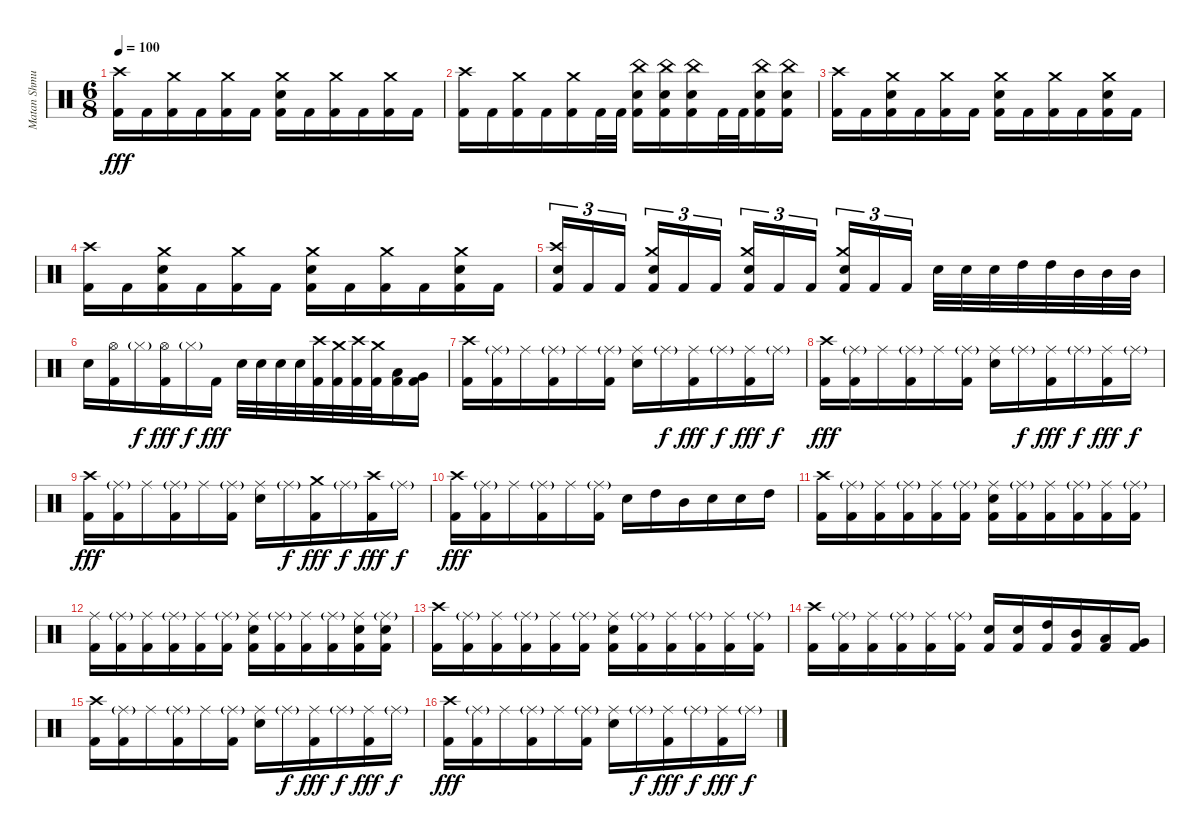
\track ("Matan Shmuely" "Matan Shmu") {instrument percussion}
\staff {score}
\articulation defaults
\ts (6 8)
\tempo 100
\clef neutral
\ks c
("Kick (hit) 2" "Crash high (hit)").16{dy fff} "Kick (hit) 2".16 ("Kick (hit) 2" "Crash medium (hit)").16 "Kick (hit) 2".16 ("Kick (hit) 2" "Crash medium (hit)").16 "Kick (hit) 2".16 ("Kick (hit) 2" "Electric Snare (hit)" "Crash medium (hit)").16 "Kick (hit) 2".16 ("Kick (hit) 2" "Crash medium (hit)").16 "Kick (hit) 2".16 ("Kick (hit) 2" "Crash medium (hit)").16 "Kick (hit) 2".16 |
("Kick (hit) 2" "Crash high (hit)").16 "Kick (hit) 2".16 ("Kick (hit) 2" "Crash medium (hit)").16 "Kick (hit) 2".16 ("Kick (hit) 2" "Crash medium (hit)").16 "Kick (hit) 2".32 "Kick (hit) 2".32 ("Kick (hit) 2" "Electric Snare (hit)" "China (hit)").16 ("Kick (hit) 2" "Electric Snare (hit)" "China (hit)").16 ("Kick (hit) 2" "Electric Snare (hit)" "China (hit)").16 "Kick (hit) 2".32 "Kick (hit) 2".32 ("Kick (hit) 2" "Electric Snare (hit)" "China (hit)").16 ("Kick (hit) 2" "Electric Snare (hit)" "China (hit)").16 |
("Kick (hit) 2" "Crash high (hit)").16 "Kick (hit) 2".16 ("Kick (hit) 2" "Electric Snare (hit)" "Crash medium (hit)").16 "Kick (hit) 2".16 ("Kick (hit) 2" "Crash medium (hit)").16 "Kick (hit) 2".16 ("Kick (hit) 2" "Electric Snare (hit)" "Crash medium (hit)").16 "Kick (hit) 2".16 ("Kick (hit) 2" "Crash medium (hit)").16 "Kick (hit) 2".16 ("Kick (hit) 2" "Electric Snare (hit)" "Crash medium (hit)").16 "Kick (hit) 2".16 |
("Kick (hit) 2" "Crash high (hit)").16 "Kick (hit) 2".16 ("Kick (hit) 2" "Electric Snare (hit)" "Crash medium (hit)").16 "Kick (hit) 2".16 ("Kick (hit) 2" "Crash medium (hit)").16 "Kick (hit) 2".16 ("Kick (hit) 2" "Electric Snare (hit)" "Crash medium (hit)").16 "Kick (hit) 2".16 ("Kick (hit) 2" "Crash medium (hit)").16 "Kick (hit) 2".16 ("Kick (hit) 2" "Electric Snare (hit)" "Crash medium (hit)").16 "Kick (hit) 2".16 |
("Kick (hit) 2" "Electric Snare (hit)" "Crash high (hit)").16{tu (3 2)} "Kick (hit) 2".16{tu (3 2)} "Kick (hit) 2".16{tu (3 2) beam splitsecondary} ("Kick (hit) 2" "Electric Snare (hit)" "Crash medium (hit)").16{tu (3 2)} "Kick (hit) 2".16{tu (3 2)} "Kick (hit) 2".16{tu (3 2) beam splitsecondary} ("Kick (hit) 2" "Electric Snare (hit)" "Crash medium (hit)").16{tu (3 2)} "Kick (hit) 2".16{tu (3 2)} "Kick (hit) 2".16{tu (3 2)} ("Kick (hit) 2" "Electric Snare (hit)" "Crash medium (hit)").16{tu (3 2)} "Kick (hit) 2".16{tu (3 2)} "Kick (hit) 2".16{tu (3 2) beam splitsecondary} "Electric Snare (hit)".32 "Electric Snare (hit)".32 "Electric Snare (hit)".32 "High Tom (hit)".32 "High Tom (hit)".32 "Mid Tom (hit)".32 "Mid Tom (hit)".32 "Mid Tom (hit)".32 |
"Electric Snare (hit)".16 ("Kick (hit) 2" "Hi-Hat (open)").16 "Hi-Hat (closed)"{g}.16{dy f} ("Kick (hit) 2" "Hi-Hat (open)").16{dy fff} "Hi-Hat (closed)"{g}.16{dy f} "Kick (hit) 2".16{dy fff} "Electric Snare (hit)".32 "Electric Snare (hit)".32 "Electric Snare (hit)".32 "Electric Snare (hit)".32 ("Kick (hit) 2" "Crash high (hit)").32 ("Kick (hit) 2" "Crash medium (hit)").32 ("Kick (hit) 2" "Crash high (hit)").32 ("Kick (hit) 2" "Crash medium (hit)").32 ("Kick (hit) 2" "Low Tom (hit)").16 ("Kick (hit) 2" "Very Low Tom (hit)").16 |
("Kick (hit) 2" "Crash high (hit)").16 ("Kick (hit) 2" "Ride (middle)"{g}).16 "Ride (middle)".16 ("Kick (hit) 2" "Ride (middle)"{g}).16 "Ride (middle)".16 ("Kick (hit) 2" "Ride (middle)"{g}).16 ("Electric Snare (hit)" "Ride (middle)").16 "Ride (middle)"{g}.16{dy f} ("Kick (hit) 2" "Ride (middle)").16{dy fff} "Ride (middle)"{g}.16{dy f} ("Kick (hit) 2" "Ride (middle)").16{dy fff} "Ride (middle)"{g}.16{dy f} |
("Kick (hit) 2" "Crash high (hit)").16{dy fff} ("Kick (hit) 2" "Ride (middle)"{g}).16 "Ride (middle)".16 ("Kick (hit) 2" "Ride (middle)"{g}).16 "Ride (middle)".16 ("Kick (hit) 2" "Ride (middle)"{g}).16 ("Electric Snare (hit)" "Ride (middle)").16 "Ride (middle)"{g}.16{dy f} ("Kick (hit) 2" "Ride (middle)").16{dy fff} "Ride (middle)"{g}.16{dy f} ("Kick (hit) 2" "Ride (middle)").16{dy fff} "Ride (middle)"{g}.16{dy f} |
("Kick (hit) 2" "Crash high (hit)").16{dy fff} ("Kick (hit) 2" "Ride (middle)"{g}).16 "Ride (middle)".16 ("Kick (hit) 2" "Ride (middle)"{g}).16 "Ride (middle)".16 ("Kick (hit) 2" "Ride (middle)"{g}).16 ("Electric Snare (hit)" "Ride (middle)").16 "Ride (middle)"{g}.16{dy f} ("Kick (hit) 2" "Crash medium (hit)").16{dy fff} "Ride (middle)"{g}.16{dy f} ("Kick (hit) 2" "Crash high (hit)").16{dy fff} "Ride (middle)"{g}.16{dy f} |
("Kick (hit) 2" "Crash high (hit)").16{dy fff} ("Kick (hit) 2" "Ride (middle)"{g}).16 "Ride (middle)".16 ("Kick (hit) 2" "Ride (middle)"{g}).16 "Ride (middle)".16 ("Kick (hit) 2" "Ride (middle)"{g}).16 "Electric Snare (hit)".16 "High Tom (hit)".16 "Mid Tom (hit)".16 "Electric Snare (hit)".16 "Electric Snare (hit)".16 "High Tom (hit)".16 |
("Kick (hit) 2" "Crash high (hit)").16 ("Kick (hit) 2" "Ride (middle)"{g}).16 ("Kick (hit) 2" "Ride (middle)").16 ("Kick (hit) 2" "Ride (middle)"{g}).16 ("Kick (hit) 2" "Ride (middle)").16 ("Kick (hit) 2" "Ride (middle)"{g}).16 ("Kick (hit) 2" "Electric Snare (hit)" "Ride (middle)").16 ("Kick (hit) 2" "Ride (middle)"{g}).16 ("Kick (hit) 2" "Ride (middle)").16 ("Kick (hit) 2" "Ride (middle)"{g}).16 ("Kick (hit) 2" "Ride (middle)").16 ("Kick (hit) 2" "Ride (middle)"{g}).16 |
("Kick (hit) 2" "Ride (middle)").16 ("Kick (hit) 2" "Ride (middle)"{g}).16 ("Kick (hit) 2" "Ride (middle)").16 ("Kick (hit) 2" "Ride (middle)"{g}).16 ("Kick (hit) 2" "Ride (middle)").16 ("Kick (hit) 2" "Ride (middle)"{g}).16 ("Kick (hit) 2" "Electric Snare (hit)" "Ride (middle)").16 ("Kick (hit) 2" "Ride (middle)"{g}).16 ("Kick (hit) 2" "Ride (middle)").16 ("Kick (hit) 2" "Ride (middle)"{g}).16 ("Kick (hit) 2" "Electric Snare (hit)" "Ride (middle)").16 ("Kick (hit) 2" "Electric Snare (hit)" "Ride (middle)"{g}).16 |
("Kick (hit) 2" "Crash high (hit)").16 ("Kick (hit) 2" "Ride (middle)"{g}).16 ("Kick (hit) 2" "Ride (middle)").16 ("Kick (hit) 2" "Ride (middle)"{g}).16 ("Kick (hit) 2" "Ride (middle)").16 ("Kick (hit) 2" "Ride (middle)"{g}).16 ("Kick (hit) 2" "Electric Snare (hit)" "Ride (middle)").16 ("Kick (hit) 2" "Ride (middle)"{g}).16 ("Kick (hit) 2" "Ride (middle)").16 ("Kick (hit) 2" "Ride (middle)"{g}).16 ("Kick (hit) 2" "Ride (middle)").16 ("Kick (hit) 2" "Ride (middle)"{g}).16 |
("Kick (hit) 2" "Crash high (hit)").16 ("Kick (hit) 2" "Ride (middle)"{g}).16 ("Kick (hit) 2" "Ride (middle)").16 ("Kick (hit) 2" "Ride (middle)"{g}).16 ("Kick (hit) 2" "Ride (middle)").16 ("Kick (hit) 2" "Ride (middle)"{g}).16 ("Kick (hit) 2" "Electric Snare (hit)").16 ("Kick (hit) 2" "Electric Snare (hit)").16 ("Kick (hit) 2" "High Tom (hit)").16 ("Kick (hit) 2" "Mid Tom (hit)").16 ("Kick (hit) 2" "Low Tom (hit)").16 ("Kick (hit) 2" "Very Low Tom (hit)").16 |
("Kick (hit) 2" "Crash high (hit)").16 ("Kick (hit) 2" "Ride (middle)"{g}).16 "Ride (middle)".16 ("Kick (hit) 2" "Ride (middle)"{g}).16 "Ride (middle)".16 ("Kick (hit) 2" "Ride (middle)"{g}).16 ("Electric Snare (hit)" "Ride (middle)").16 "Ride (middle)"{g}.16{dy f} ("Kick (hit) 2" "Ride (middle)").16{dy fff} "Ride (middle)"{g}.16{dy f} ("Kick (hit) 2" "Ride (middle)").16{dy fff} "Ride (middle)"{g}.16{dy f} |
("Kick (hit) 2" "Crash high (hit)").16{dy fff} ("Kick (hit) 2" "Ride (middle)"{g}).16 "Ride (middle)".16 ("Kick (hit) 2" "Ride (middle)"{g}).16 "Ride (middle)".16 ("Kick (hit) 2" "Ride (middle)"{g}).16 ("Electric Snare (hit)" "Ride (middle)").16 "Ride (middle)"{g}.16{dy f} ("Kick (hit) 2" "Ride (middle)").16{dy fff} "Ride (middle)"{g}.16{dy f} ("Kick (hit) 2" "Ride (middle)").16{dy fff} "Ride (middle)"{g}.16{dy f}
